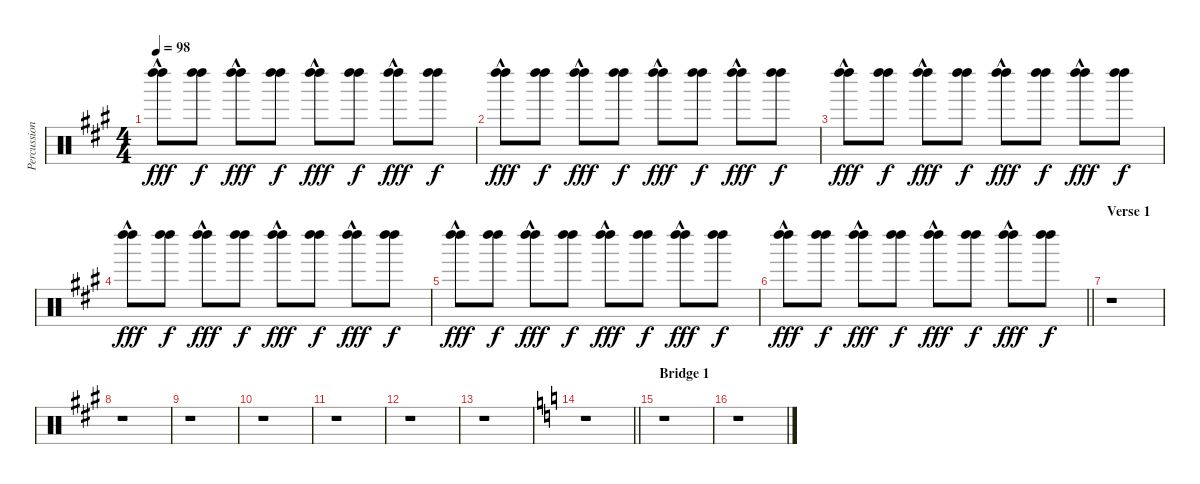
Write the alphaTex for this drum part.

\track ("Percussion -- Steven Tyler" "Percussion") {instrument percussion}
\staff {score}
\articulation defaults
\ts (4 4)
\tempo 98
\clef neutral
\ks a
("Left Maraca (hit)"{hac} "Left Maraca (hit)"{hac}).8{dy fff} ("Left Maraca (hit)" "Left Maraca (hit)").8{dy f} ("Left Maraca (hit)"{hac} "Left Maraca (hit)"{hac}).8{dy fff} ("Left Maraca (hit)" "Left Maraca (hit)").8{dy f} ("Left Maraca (hit)"{hac} "Left Maraca (hit)"{hac}).8{dy fff} ("Left Maraca (hit)" "Left Maraca (hit)").8{dy f} ("Left Maraca (hit)"{hac} "Left Maraca (hit)"{hac}).8{dy fff} ("Left Maraca (hit)" "Left Maraca (hit)").8{dy f} |
("Left Maraca (hit)"{hac} "Left Maraca (hit)"{hac}).8{dy fff} ("Left Maraca (hit)" "Left Maraca (hit)").8{dy f} ("Left Maraca (hit)"{hac} "Left Maraca (hit)"{hac}).8{dy fff} ("Left Maraca (hit)" "Left Maraca (hit)").8{dy f} ("Left Maraca (hit)"{hac} "Left Maraca (hit)"{hac}).8{dy fff} ("Left Maraca (hit)" "Left Maraca (hit)").8{dy f} ("Left Maraca (hit)"{hac} "Left Maraca (hit)"{hac}).8{dy fff} ("Left Maraca (hit)" "Left Maraca (hit)").8{dy f} |
("Left Maraca (hit)"{hac} "Left Maraca (hit)"{hac}).8{dy fff} ("Left Maraca (hit)" "Left Maraca (hit)").8{dy f} ("Left Maraca (hit)"{hac} "Left Maraca (hit)"{hac}).8{dy fff} ("Left Maraca (hit)" "Left Maraca (hit)").8{dy f} ("Left Maraca (hit)"{hac} "Left Maraca (hit)"{hac}).8{dy fff} ("Left Maraca (hit)" "Left Maraca (hit)").8{dy f} ("Left Maraca (hit)"{hac} "Left Maraca (hit)"{hac}).8{dy fff} ("Left Maraca (hit)" "Left Maraca (hit)").8{dy f} |
("Left Maraca (hit)"{hac} "Left Maraca (hit)"{hac}).8{dy fff} ("Left Maraca (hit)" "Left Maraca (hit)").8{dy f} ("Left Maraca (hit)"{hac} "Left Maraca (hit)"{hac}).8{dy fff} ("Left Maraca (hit)" "Left Maraca (hit)").8{dy f} ("Left Maraca (hit)"{hac} "Left Maraca (hit)"{hac}).8{dy fff} ("Left Maraca (hit)" "Left Maraca (hit)").8{dy f} ("Left Maraca (hit)"{hac} "Left Maraca (hit)"{hac}).8{dy fff} ("Left Maraca (hit)" "Left Maraca (hit)").8{dy f} |
("Left Maraca (hit)"{hac} "Left Maraca (hit)"{hac}).8{dy fff} ("Left Maraca (hit)" "Left Maraca (hit)").8{dy f} ("Left Maraca (hit)"{hac} "Left Maraca (hit)"{hac}).8{dy fff} ("Left Maraca (hit)" "Left Maraca (hit)").8{dy f} ("Left Maraca (hit)"{hac} "Left Maraca (hit)"{hac}).8{dy fff} ("Left Maraca (hit)" "Left Maraca (hit)").8{dy f} ("Left Maraca (hit)"{hac} "Left Maraca (hit)"{hac}).8{dy fff} ("Left Maraca (hit)" "Left Maraca (hit)").8{dy f} |
\barLineRight lightlight
("Left Maraca (hit)"{hac} "Left Maraca (hit)"{hac}).8{dy fff} ("Left Maraca (hit)" "Left Maraca (hit)").8{dy f} ("Left Maraca (hit)"{hac} "Left Maraca (hit)"{hac}).8{dy fff} ("Left Maraca (hit)" "Left Maraca (hit)").8{dy f} ("Left Maraca (hit)"{hac} "Left Maraca (hit)"{hac}).8{dy fff} ("Left Maraca (hit)" "Left Maraca (hit)").8{dy f} ("Left Maraca (hit)"{hac} "Left Maraca (hit)"{hac}).8{dy fff} ("Left Maraca (hit)" "Left Maraca (hit)").8{dy f} |
\section ("" "Verse 1")
r.1 |
r.1 |
r.1 |
r.1 |
r.1 |
r.1 |
r.1 |
\barLineRight lightlight
\ks c
r.1 |
\section ("" "Bridge 1")
r.1 |
r.1
